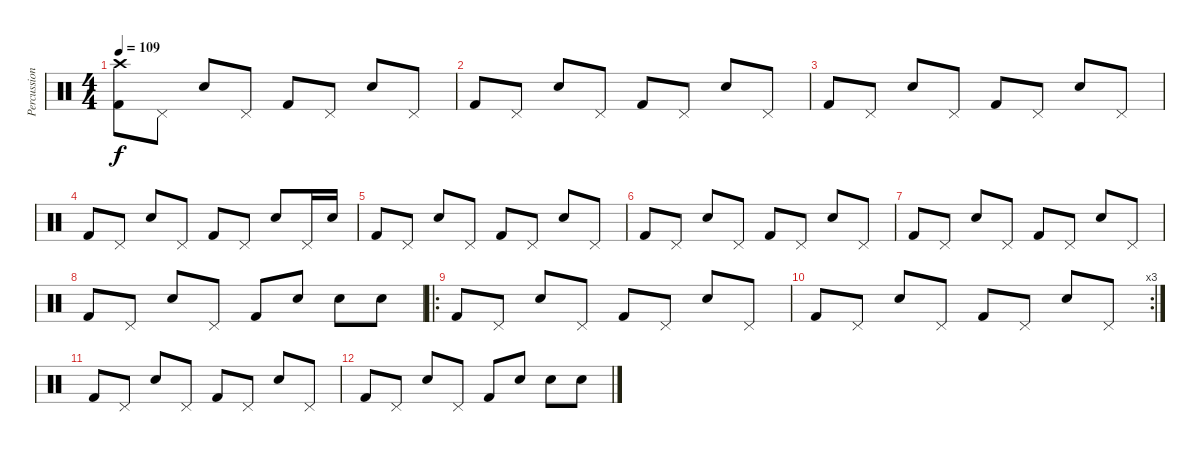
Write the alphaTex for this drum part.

\track ("Percussions" "Percussion") {instrument percussion}
\staff {score}
\articulation defaults
\ts (4 4)
\tempo 109
\clef neutral
\ks c
("Crash high (hit)" "Kick (hit) 2").8{dy f} "Pedal Hi-Hat (hit)".8 "Snare (hit) 2".8 "Pedal Hi-Hat (hit)".8 "Kick (hit) 2".8 "Pedal Hi-Hat (hit)".8 "Snare (hit) 2".8 "Pedal Hi-Hat (hit)".8 |
"Kick (hit) 2".8 "Pedal Hi-Hat (hit)".8 "Snare (hit) 2".8 "Pedal Hi-Hat (hit)".8 "Kick (hit) 2".8 "Pedal Hi-Hat (hit)".8 "Snare (hit) 2".8 "Pedal Hi-Hat (hit)".8 |
"Kick (hit) 2".8 "Pedal Hi-Hat (hit)".8 "Snare (hit) 2".8 "Pedal Hi-Hat (hit)".8 "Kick (hit) 2".8 "Pedal Hi-Hat (hit)".8 "Snare (hit) 2".8 "Pedal Hi-Hat (hit)".8 |
"Kick (hit) 2".8 "Pedal Hi-Hat (hit)".8 "Snare (hit) 2".8 "Pedal Hi-Hat (hit)".8 "Kick (hit) 2".8 "Pedal Hi-Hat (hit)".8 "Snare (hit) 2".8 "Pedal Hi-Hat (hit)".16 "Snare (hit) 2".16 |
"Kick (hit) 2".8 "Pedal Hi-Hat (hit)".8 "Snare (hit) 2".8 "Pedal Hi-Hat (hit)".8 "Kick (hit) 2".8 "Pedal Hi-Hat (hit)".8 "Snare (hit) 2".8 "Pedal Hi-Hat (hit)".8 |
"Kick (hit) 2".8 "Pedal Hi-Hat (hit)".8 "Snare (hit) 2".8 "Pedal Hi-Hat (hit)".8 "Kick (hit) 2".8 "Pedal Hi-Hat (hit)".8 "Snare (hit) 2".8 "Pedal Hi-Hat (hit)".8 |
"Kick (hit) 2".8 "Pedal Hi-Hat (hit)".8 "Snare (hit) 2".8 "Pedal Hi-Hat (hit)".8 "Kick (hit) 2".8 "Pedal Hi-Hat (hit)".8 "Snare (hit) 2".8 "Pedal Hi-Hat (hit)".8 |
"Kick (hit) 2".8 "Pedal Hi-Hat (hit)".8 "Snare (hit) 2".8 "Pedal Hi-Hat (hit)".8 "Kick (hit) 2".8 "Snare (hit) 2".8 "Snare (hit) 2".8 "Snare (hit) 2".8 |
\ro "Kick (hit) 2".8 "Pedal Hi-Hat (hit)".8 "Snare (hit) 2".8 "Pedal Hi-Hat (hit)".8 "Kick (hit) 2".8 "Pedal Hi-Hat (hit)".8 "Snare (hit) 2".8 "Pedal Hi-Hat (hit)".8
|
\rc 3 "Kick (hit) 2".8 "Pedal Hi-Hat (hit)".8 "Snare (hit) 2".8 "Pedal Hi-Hat (hit)".8 "Kick (hit) 2".8 "Pedal Hi-Hat (hit)".8 "Snare (hit) 2".8 "Pedal Hi-Hat (hit)".8
|
"Kick (hit) 2".8 "Pedal Hi-Hat (hit)".8 "Snare (hit) 2".8 "Pedal Hi-Hat (hit)".8 "Kick (hit) 2".8 "Pedal Hi-Hat (hit)".8 "Snare (hit) 2".8 "Pedal Hi-Hat (hit)".8 |
"Kick (hit) 2".8 "Pedal Hi-Hat (hit)".8 "Snare (hit) 2".8 "Pedal Hi-Hat (hit)".8 "Kick (hit) 2".8 "Snare (hit) 2".8 "Snare (hit) 2".8 "Snare (hit) 2".8
